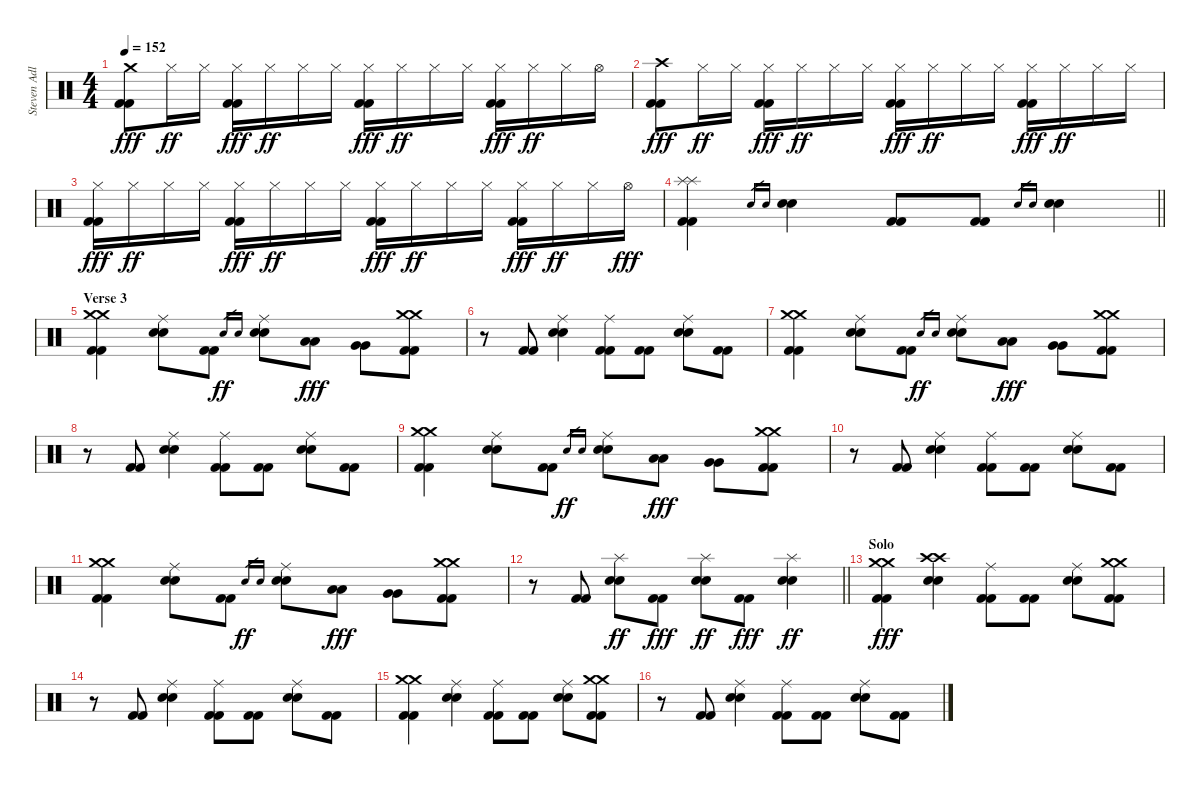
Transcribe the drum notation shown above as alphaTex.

\track ("Steven Adler" "Steven Adl") {instrument percussion}
\staff {score}
\articulation defaults
\ts (4 4)
\tempo 152
\clef neutral
\ks c
("Crash medium (hit)" "Kick (hit) 2" "Kick (hit) 2").8{dy fff} "Hi-Hat (closed)".16{dy ff} "Hi-Hat (closed)".16 ("Hi-Hat (closed)" "Kick (hit) 2" "Kick (hit) 2").16{dy fff} "Hi-Hat (closed)".16{dy ff} "Hi-Hat (closed)".16 "Hi-Hat (closed)".16 ("Hi-Hat (closed)" "Kick (hit) 2" "Kick (hit) 2").16{dy fff} "Hi-Hat (closed)".16{dy ff} "Hi-Hat (closed)".16 "Hi-Hat (closed)".16 ("Hi-Hat (closed)" "Kick (hit) 2" "Kick (hit) 2").16{dy fff} "Hi-Hat (closed)".16{dy ff} "Hi-Hat (closed)".16 "Hi-Hat (open)".16 |
("Crash high (hit)" "Kick (hit) 2" "Kick (hit) 2").8{dy fff} "Hi-Hat (closed)".16{dy ff} "Hi-Hat (closed)".16 ("Hi-Hat (closed)" "Kick (hit) 2" "Kick (hit) 2").16{dy fff} "Hi-Hat (closed)".16{dy ff} "Hi-Hat (closed)".16 "Hi-Hat (closed)".16 ("Hi-Hat (closed)" "Kick (hit) 2" "Kick (hit) 2").16{dy fff} "Hi-Hat (closed)".16{dy ff} "Hi-Hat (closed)".16 "Hi-Hat (closed)".16 ("Hi-Hat (closed)" "Kick (hit) 2" "Kick (hit) 2").16{dy fff} "Hi-Hat (closed)".16{dy ff} "Hi-Hat (closed)".16 "Hi-Hat (closed)".16 |
("Hi-Hat (closed)" "Kick (hit) 2" "Kick (hit) 2").16{dy fff} "Hi-Hat (closed)".16{dy ff} "Hi-Hat (closed)".16 "Hi-Hat (closed)".16 ("Hi-Hat (closed)" "Kick (hit) 2" "Kick (hit) 2").16{dy fff} "Hi-Hat (closed)".16{dy ff} "Hi-Hat (closed)".16 "Hi-Hat (closed)".16 ("Hi-Hat (closed)" "Kick (hit) 2" "Kick (hit) 2").16{dy fff} "Hi-Hat (closed)".16{dy ff} "Hi-Hat (closed)".16 "Hi-Hat (closed)".16 ("Hi-Hat (closed)" "Kick (hit) 2" "Kick (hit) 2").16{dy fff} "Hi-Hat (closed)".16{dy ff} "Hi-Hat (closed)".16 "Hi-Hat (open)".16{dy fff} |
\barLineRight lightlight
("Splash (hit)" "Splash (hit)" "Kick (hit) 2" "Kick (hit) 2").4 "Electric Snare (hit)".16{gr} "Electric Snare (hit)".16{gr} ("Electric Snare (hit)" "Electric Snare (hit)").4 ("Kick (hit) 2" "Kick (hit) 2").8 ("Kick (hit) 2" "Kick (hit) 2").8 "Electric Snare (hit)".16{gr} "Electric Snare (hit)".16{gr} ("Electric Snare (hit)" "Electric Snare (hit)").4 |
\section ("" "Verse 3")
("Crash medium (hit)" "Crash medium (hit)" "Kick (hit) 2" "Kick (hit) 2").4 ("Ride (middle)" "Electric Snare (hit)" "Electric Snare (hit)").8 ("Kick (hit) 2" "Kick (hit) 2").8 "Electric Snare (hit)".16{gr dy ff} "Electric Snare (hit)".16{gr} ("Ride (middle)" "Electric Snare (hit)" "Electric Snare (hit)").8 ("Low Tom (hit)" "Low Tom (hit)").8{dy fff} ("Very Low Tom (hit)" "Very Low Tom (hit)").8 ("Crash medium (hit)" "Crash medium (hit)" "Kick (hit) 2" "Kick (hit) 2").8 |
r.8 ("Kick (hit) 2" "Kick (hit) 2").8 ("Ride (middle)" "Electric Snare (hit)" "Electric Snare (hit)").4 ("Ride (middle)" "Kick (hit) 2" "Kick (hit) 2").8 ("Kick (hit) 2" "Kick (hit) 2").8 ("Ride (middle)" "Electric Snare (hit)" "Electric Snare (hit)").8 ("Kick (hit) 2" "Kick (hit) 2").8 |
("Crash medium (hit)" "Crash medium (hit)" "Kick (hit) 2" "Kick (hit) 2").4 ("Ride (middle)" "Electric Snare (hit)" "Electric Snare (hit)").8 ("Kick (hit) 2" "Kick (hit) 2").8 "Electric Snare (hit)".16{gr dy ff} "Electric Snare (hit)".16{gr} ("Ride (middle)" "Electric Snare (hit)" "Electric Snare (hit)").8 ("Low Tom (hit)" "Low Tom (hit)").8{dy fff} ("Very Low Tom (hit)" "Very Low Tom (hit)").8 ("Crash medium (hit)" "Crash medium (hit)" "Kick (hit) 2" "Kick (hit) 2").8 |
r.8 ("Kick (hit) 2" "Kick (hit) 2").8 ("Ride (middle)" "Electric Snare (hit)" "Electric Snare (hit)").4 ("Ride (middle)" "Kick (hit) 2" "Kick (hit) 2").8 ("Kick (hit) 2" "Kick (hit) 2").8 ("Ride (middle)" "Electric Snare (hit)" "Electric Snare (hit)").8 ("Kick (hit) 2" "Kick (hit) 2").8 |
("Crash medium (hit)" "Crash medium (hit)" "Kick (hit) 2" "Kick (hit) 2").4 ("Ride (middle)" "Electric Snare (hit)" "Electric Snare (hit)").8 ("Kick (hit) 2" "Kick (hit) 2").8 "Electric Snare (hit)".16{gr dy ff} "Electric Snare (hit)".16{gr} ("Ride (middle)" "Electric Snare (hit)" "Electric Snare (hit)").8 ("Low Tom (hit)" "Low Tom (hit)").8{dy fff} ("Very Low Tom (hit)" "Very Low Tom (hit)").8 ("Crash medium (hit)" "Crash medium (hit)" "Kick (hit) 2" "Kick (hit) 2").8 |
r.8 ("Kick (hit) 2" "Kick (hit) 2").8 ("Ride (middle)" "Electric Snare (hit)" "Electric Snare (hit)").4 ("Ride (middle)" "Kick (hit) 2" "Kick (hit) 2").8 ("Kick (hit) 2" "Kick (hit) 2").8 ("Ride (middle)" "Electric Snare (hit)" "Electric Snare (hit)").8 ("Kick (hit) 2" "Kick (hit) 2").8 |
("Crash medium (hit)" "Crash medium (hit)" "Kick (hit) 2" "Kick (hit) 2").4 ("Ride (middle)" "Electric Snare (hit)" "Electric Snare (hit)").8 ("Kick (hit) 2" "Kick (hit) 2").8 "Electric Snare (hit)".16{gr dy ff} "Electric Snare (hit)".16{gr} ("Ride (middle)" "Electric Snare (hit)" "Electric Snare (hit)").8 ("Low Tom (hit)" "Low Tom (hit)").8{dy fff} ("Very Low Tom (hit)" "Very Low Tom (hit)").8 ("Crash medium (hit)" "Crash medium (hit)" "Kick (hit) 2" "Kick (hit) 2").8 |
\barLineRight lightlight
r.8 ("Kick (hit) 2" "Kick (hit) 2").8 ("Splash (hit)" "Electric Snare (hit)" "Electric Snare (hit)").8{dy ff} ("Kick (hit) 2" "Kick (hit) 2").8{dy fff} ("Splash (hit)" "Electric Snare (hit)" "Electric Snare (hit)").8{dy ff} ("Kick (hit) 2" "Kick (hit) 2").8{dy fff} ("Splash (hit)" "Electric Snare (hit)" "Electric Snare (hit)").4{dy ff} |
\section ("" "Solo")
("Crash medium (hit)" "Crash medium (hit)" "Kick (hit) 2" "Kick (hit) 2").4{dy fff} ("Crash high (hit)" "Crash high (hit)" "Electric Snare (hit)" "Electric Snare (hit)").4 ("Ride (middle)" "Kick (hit) 2" "Kick (hit) 2").8 ("Kick (hit) 2" "Kick (hit) 2").8 ("Ride (middle)" "Electric Snare (hit)" "Electric Snare (hit)").8 ("Crash medium (hit)" "Crash medium (hit)" "Kick (hit) 2" "Kick (hit) 2").8 |
r.8 ("Kick (hit) 2" "Kick (hit) 2").8 ("Ride (middle)" "Electric Snare (hit)" "Electric Snare (hit)").4 ("Ride (middle)" "Kick (hit) 2" "Kick (hit) 2").8 ("Kick (hit) 2" "Kick (hit) 2").8 ("Ride (middle)" "Electric Snare (hit)" "Electric Snare (hit)").8 ("Kick (hit) 2" "Kick (hit) 2").8 |
("Crash medium (hit)" "Crash medium (hit)" "Kick (hit) 2" "Kick (hit) 2").4 ("Ride (middle)" "Electric Snare (hit)" "Electric Snare (hit)").4 ("Ride (middle)" "Kick (hit) 2" "Kick (hit) 2").8 ("Kick (hit) 2" "Kick (hit) 2").8 ("Ride (middle)" "Electric Snare (hit)" "Electric Snare (hit)").8 ("Crash medium (hit)" "Crash medium (hit)" "Kick (hit) 2" "Kick (hit) 2").8 |
r.8 ("Kick (hit) 2" "Kick (hit) 2").8 ("Ride (middle)" "Electric Snare (hit)" "Electric Snare (hit)").4 ("Ride (middle)" "Kick (hit) 2" "Kick (hit) 2").8 ("Kick (hit) 2" "Kick (hit) 2").8 ("Ride (middle)" "Electric Snare (hit)" "Electric Snare (hit)").8 ("Kick (hit) 2" "Kick (hit) 2").8
